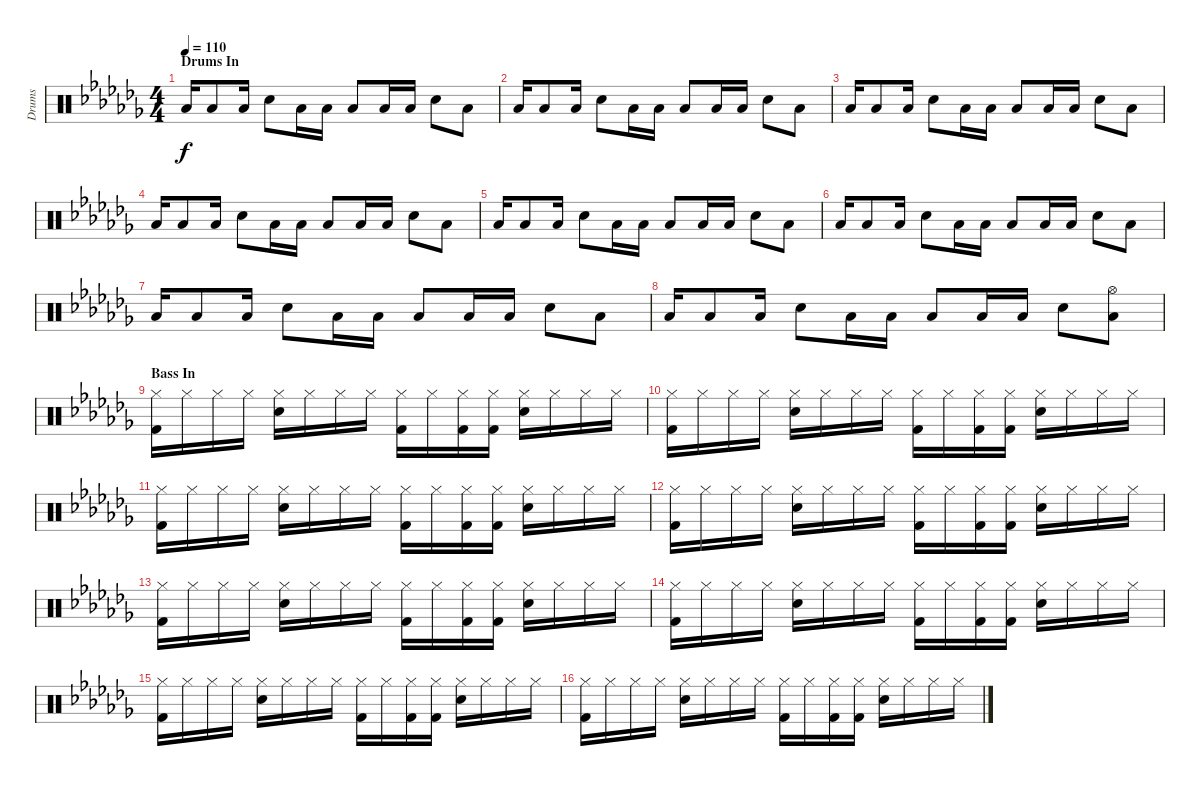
\track ("Drums" "Drums") {instrument percussion}
\staff {score}
\articulation defaults
\ts (4 4)
\section ("" "Drums In")
\tempo 110
\clef neutral
\ks abminor "Low Tom (hit)".16{dy f} "Low Tom (hit)".8 "Low Tom (hit)".16 "Snare (hit) 2".8 "Low Tom (hit)".16 "Low Tom (hit)".16 "Low Tom (hit)".8 "Low Tom (hit)".16 "Low Tom (hit)".16 "Snare (hit) 2".8 "Low Tom (hit)".8
|
"Low Tom (hit)".16 "Low Tom (hit)".8 "Low Tom (hit)".16 "Snare (hit) 2".8 "Low Tom (hit)".16 "Low Tom (hit)".16 "Low Tom (hit)".8 "Low Tom (hit)".16 "Low Tom (hit)".16 "Snare (hit) 2".8 "Low Tom (hit)".8 |
"Low Tom (hit)".16 "Low Tom (hit)".8 "Low Tom (hit)".16 "Snare (hit) 2".8 "Low Tom (hit)".16 "Low Tom (hit)".16 "Low Tom (hit)".8 "Low Tom (hit)".16 "Low Tom (hit)".16 "Snare (hit) 2".8 "Low Tom (hit)".8 |
"Low Tom (hit)".16 "Low Tom (hit)".8 "Low Tom (hit)".16 "Snare (hit) 2".8 "Low Tom (hit)".16 "Low Tom (hit)".16 "Low Tom (hit)".8 "Low Tom (hit)".16 "Low Tom (hit)".16 "Snare (hit) 2".8 "Low Tom (hit)".8 |
"Low Tom (hit)".16 "Low Tom (hit)".8 "Low Tom (hit)".16 "Snare (hit) 2".8 "Low Tom (hit)".16 "Low Tom (hit)".16 "Low Tom (hit)".8 "Low Tom (hit)".16 "Low Tom (hit)".16 "Snare (hit) 2".8 "Low Tom (hit)".8 |
"Low Tom (hit)".16 "Low Tom (hit)".8 "Low Tom (hit)".16 "Snare (hit) 2".8 "Low Tom (hit)".16 "Low Tom (hit)".16 "Low Tom (hit)".8 "Low Tom (hit)".16 "Low Tom (hit)".16 "Snare (hit) 2".8 "Low Tom (hit)".8 |
"Low Tom (hit)".16 "Low Tom (hit)".8 "Low Tom (hit)".16 "Snare (hit) 2".8 "Low Tom (hit)".16 "Low Tom (hit)".16 "Low Tom (hit)".8 "Low Tom (hit)".16 "Low Tom (hit)".16 "Snare (hit) 2".8 "Low Tom (hit)".8 |
"Low Tom (hit)".16 "Low Tom (hit)".8 "Low Tom (hit)".16 "Snare (hit) 2".8 "Low Tom (hit)".16 "Low Tom (hit)".16 "Low Tom (hit)".8 "Low Tom (hit)".16 "Low Tom (hit)".16 "Snare (hit) 2".8 ("Hi-Hat (open)" "Low Tom (hit)").8 |
\section ("" "Bass In")
("Hi-Hat (closed)" "Kick (hit) 2").16{volume 12} "Hi-Hat (closed)".16 "Hi-Hat (closed)".16 "Hi-Hat (closed)".16 ("Hi-Hat (closed)" "Snare (hit) 2").16 "Hi-Hat (closed)".16 "Hi-Hat (closed)".16 "Hi-Hat (closed)".16 ("Hi-Hat (closed)" "Kick (hit) 2").16 "Hi-Hat (closed)".16 ("Hi-Hat (closed)" "Kick (hit) 2").16 ("Hi-Hat (closed)" "Kick (hit) 2").16 ("Hi-Hat (closed)" "Snare (hit) 2").16 "Hi-Hat (closed)".16 "Hi-Hat (closed)".16 "Hi-Hat (closed)".16 |
("Hi-Hat (closed)" "Kick (hit) 2").16 "Hi-Hat (closed)".16 "Hi-Hat (closed)".16 "Hi-Hat (closed)".16 ("Hi-Hat (closed)" "Snare (hit) 2").16 "Hi-Hat (closed)".16 "Hi-Hat (closed)".16 "Hi-Hat (closed)".16 ("Hi-Hat (closed)" "Kick (hit) 2").16 "Hi-Hat (closed)".16 ("Hi-Hat (closed)" "Kick (hit) 2").16 ("Hi-Hat (closed)" "Kick (hit) 2").16 ("Hi-Hat (closed)" "Snare (hit) 2").16 "Hi-Hat (closed)".16 "Hi-Hat (closed)".16 "Hi-Hat (closed)".16 |
("Hi-Hat (closed)" "Kick (hit) 2").16 "Hi-Hat (closed)".16 "Hi-Hat (closed)".16 "Hi-Hat (closed)".16 ("Hi-Hat (closed)" "Snare (hit) 2").16 "Hi-Hat (closed)".16 "Hi-Hat (closed)".16 "Hi-Hat (closed)".16 ("Hi-Hat (closed)" "Kick (hit) 2").16 "Hi-Hat (closed)".16 ("Hi-Hat (closed)" "Kick (hit) 2").16 ("Hi-Hat (closed)" "Kick (hit) 2").16 ("Hi-Hat (closed)" "Snare (hit) 2").16 "Hi-Hat (closed)".16 "Hi-Hat (closed)".16 "Hi-Hat (closed)".16 |
("Hi-Hat (closed)" "Kick (hit) 2").16 "Hi-Hat (closed)".16 "Hi-Hat (closed)".16 "Hi-Hat (closed)".16 ("Hi-Hat (closed)" "Snare (hit) 2").16 "Hi-Hat (closed)".16 "Hi-Hat (closed)".16 "Hi-Hat (closed)".16 ("Hi-Hat (closed)" "Kick (hit) 2").16 "Hi-Hat (closed)".16 ("Hi-Hat (closed)" "Kick (hit) 2").16 ("Hi-Hat (closed)" "Kick (hit) 2").16 ("Hi-Hat (closed)" "Snare (hit) 2").16 "Hi-Hat (closed)".16 "Hi-Hat (closed)".16 "Hi-Hat (closed)".16 |
("Hi-Hat (closed)" "Kick (hit) 2").16 "Hi-Hat (closed)".16 "Hi-Hat (closed)".16 "Hi-Hat (closed)".16 ("Hi-Hat (closed)" "Snare (hit) 2").16 "Hi-Hat (closed)".16 "Hi-Hat (closed)".16 "Hi-Hat (closed)".16 ("Hi-Hat (closed)" "Kick (hit) 2").16 "Hi-Hat (closed)".16 ("Hi-Hat (closed)" "Kick (hit) 2").16 ("Hi-Hat (closed)" "Kick (hit) 2").16 ("Hi-Hat (closed)" "Snare (hit) 2").16 "Hi-Hat (closed)".16 "Hi-Hat (closed)".16 "Hi-Hat (closed)".16 |
("Hi-Hat (closed)" "Kick (hit) 2").16 "Hi-Hat (closed)".16 "Hi-Hat (closed)".16 "Hi-Hat (closed)".16 ("Hi-Hat (closed)" "Snare (hit) 2").16 "Hi-Hat (closed)".16 "Hi-Hat (closed)".16 "Hi-Hat (closed)".16 ("Hi-Hat (closed)" "Kick (hit) 2").16 "Hi-Hat (closed)".16 ("Hi-Hat (closed)" "Kick (hit) 2").16 ("Hi-Hat (closed)" "Kick (hit) 2").16 ("Hi-Hat (closed)" "Snare (hit) 2").16 "Hi-Hat (closed)".16 "Hi-Hat (closed)".16 "Hi-Hat (closed)".16 |
("Hi-Hat (closed)" "Kick (hit) 2").16 "Hi-Hat (closed)".16 "Hi-Hat (closed)".16 "Hi-Hat (closed)".16 ("Hi-Hat (closed)" "Snare (hit) 2").16 "Hi-Hat (closed)".16 "Hi-Hat (closed)".16 "Hi-Hat (closed)".16 ("Hi-Hat (closed)" "Kick (hit) 2").16 "Hi-Hat (closed)".16 ("Hi-Hat (closed)" "Kick (hit) 2").16 ("Hi-Hat (closed)" "Kick (hit) 2").16 ("Hi-Hat (closed)" "Snare (hit) 2").16 "Hi-Hat (closed)".16 "Hi-Hat (closed)".16 "Hi-Hat (closed)".16 |
("Hi-Hat (closed)" "Kick (hit) 2").16 "Hi-Hat (closed)".16 "Hi-Hat (closed)".16 "Hi-Hat (closed)".16 ("Hi-Hat (closed)" "Snare (hit) 2").16 "Hi-Hat (closed)".16 "Hi-Hat (closed)".16 "Hi-Hat (closed)".16 ("Hi-Hat (closed)" "Kick (hit) 2").16 "Hi-Hat (closed)".16 ("Hi-Hat (closed)" "Kick (hit) 2").16 ("Hi-Hat (closed)" "Kick (hit) 2").16 ("Hi-Hat (closed)" "Snare (hit) 2").16 "Hi-Hat (closed)".16 "Hi-Hat (closed)".16 "Hi-Hat (closed)".16
